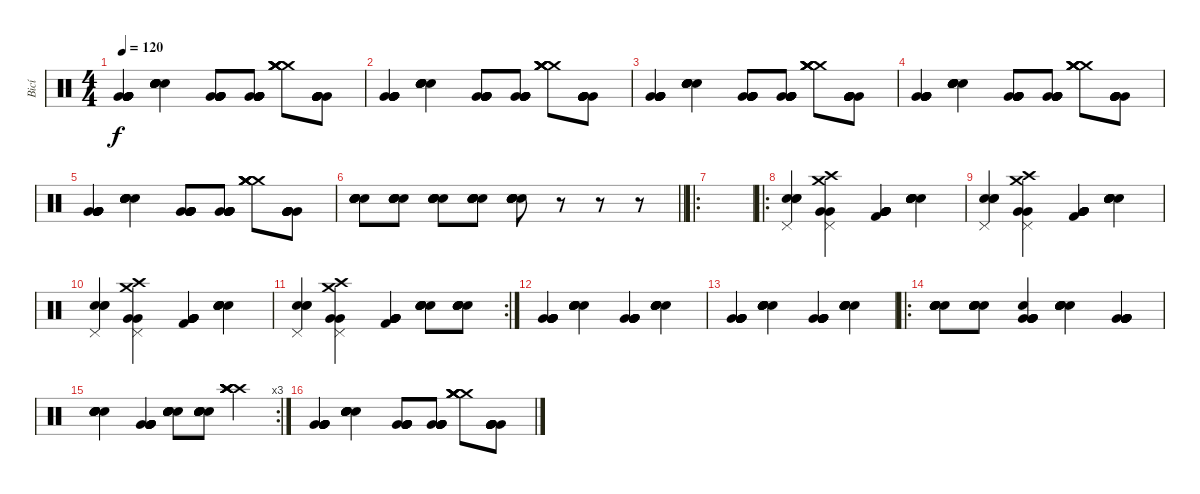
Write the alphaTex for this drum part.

\track ("Bicí" "Bicí") {instrument percussion}
\staff {score}
\articulation defaults
\ts (4 4)
\tempo 120
\clef neutral
\ks c
("Very Low Tom (hit)" "Very Low Tom (hit)" "Very Low Tom (hit)" "Very Low Tom (hit)" "Very Low Tom (hit)" "Very Low Tom (hit)").4{dy f} ("Electric Snare (hit)" "Electric Snare (hit)" "Electric Snare (hit)" "Electric Snare (hit)" "Electric Snare (hit)" "Electric Snare (hit)").4 ("Very Low Tom (hit)" "Very Low Tom (hit)" "Very Low Tom (hit)" "Very Low Tom (hit)" "Very Low Tom (hit)" "Very Low Tom (hit)").8 ("Very Low Tom (hit)" "Very Low Tom (hit)" "Very Low Tom (hit)" "Very Low Tom (hit)" "Very Low Tom (hit)" "Very Low Tom (hit)").8 ("Crash medium (hit)" "Crash medium (hit)" "Crash medium (hit)" "Crash medium (hit)" "Crash medium (hit)" "Crash medium (hit)").8 ("Very Low Tom (hit)" "Very Low Tom (hit)" "Very Low Tom (hit)" "Very Low Tom (hit)" "Very Low Tom (hit)" "Very Low Tom (hit)").8 |
("Very Low Tom (hit)" "Very Low Tom (hit)" "Very Low Tom (hit)" "Very Low Tom (hit)" "Very Low Tom (hit)" "Very Low Tom (hit)").4 ("Electric Snare (hit)" "Electric Snare (hit)" "Electric Snare (hit)" "Electric Snare (hit)" "Electric Snare (hit)" "Electric Snare (hit)").4 ("Very Low Tom (hit)" "Very Low Tom (hit)" "Very Low Tom (hit)" "Very Low Tom (hit)" "Very Low Tom (hit)" "Very Low Tom (hit)").8 ("Very Low Tom (hit)" "Very Low Tom (hit)" "Very Low Tom (hit)" "Very Low Tom (hit)" "Very Low Tom (hit)" "Very Low Tom (hit)").8 ("Crash medium (hit)" "Crash medium (hit)" "Crash medium (hit)" "Crash medium (hit)" "Crash medium (hit)" "Crash medium (hit)").8 ("Very Low Tom (hit)" "Very Low Tom (hit)" "Very Low Tom (hit)" "Very Low Tom (hit)" "Very Low Tom (hit)" "Very Low Tom (hit)").8 |
("Very Low Tom (hit)" "Very Low Tom (hit)" "Very Low Tom (hit)" "Very Low Tom (hit)" "Very Low Tom (hit)" "Very Low Tom (hit)").4 ("Electric Snare (hit)" "Electric Snare (hit)" "Electric Snare (hit)" "Electric Snare (hit)" "Electric Snare (hit)" "Electric Snare (hit)").4 ("Very Low Tom (hit)" "Very Low Tom (hit)" "Very Low Tom (hit)" "Very Low Tom (hit)" "Very Low Tom (hit)" "Very Low Tom (hit)").8 ("Very Low Tom (hit)" "Very Low Tom (hit)" "Very Low Tom (hit)" "Very Low Tom (hit)" "Very Low Tom (hit)" "Very Low Tom (hit)").8 ("Crash medium (hit)" "Crash medium (hit)" "Crash medium (hit)" "Crash medium (hit)" "Crash medium (hit)" "Crash medium (hit)").8 ("Very Low Tom (hit)" "Very Low Tom (hit)" "Very Low Tom (hit)" "Very Low Tom (hit)" "Very Low Tom (hit)" "Very Low Tom (hit)").8 |
("Very Low Tom (hit)" "Very Low Tom (hit)" "Very Low Tom (hit)" "Very Low Tom (hit)" "Very Low Tom (hit)" "Very Low Tom (hit)").4 ("Electric Snare (hit)" "Electric Snare (hit)" "Electric Snare (hit)" "Electric Snare (hit)" "Electric Snare (hit)" "Electric Snare (hit)").4 ("Very Low Tom (hit)" "Very Low Tom (hit)" "Very Low Tom (hit)" "Very Low Tom (hit)" "Very Low Tom (hit)" "Very Low Tom (hit)").8 ("Very Low Tom (hit)" "Very Low Tom (hit)" "Very Low Tom (hit)" "Very Low Tom (hit)" "Very Low Tom (hit)" "Very Low Tom (hit)").8 ("Crash medium (hit)" "Crash medium (hit)" "Crash medium (hit)" "Crash medium (hit)" "Crash medium (hit)" "Crash medium (hit)").8 ("Very Low Tom (hit)" "Very Low Tom (hit)" "Very Low Tom (hit)" "Very Low Tom (hit)" "Very Low Tom (hit)" "Very Low Tom (hit)").8 |
("Very Low Tom (hit)" "Very Low Tom (hit)" "Very Low Tom (hit)" "Very Low Tom (hit)" "Very Low Tom (hit)" "Very Low Tom (hit)").4 ("Electric Snare (hit)" "Electric Snare (hit)" "Electric Snare (hit)" "Electric Snare (hit)" "Electric Snare (hit)" "Electric Snare (hit)").4 ("Very Low Tom (hit)" "Very Low Tom (hit)" "Very Low Tom (hit)" "Very Low Tom (hit)" "Very Low Tom (hit)" "Very Low Tom (hit)").8 ("Very Low Tom (hit)" "Very Low Tom (hit)" "Very Low Tom (hit)" "Very Low Tom (hit)" "Very Low Tom (hit)" "Very Low Tom (hit)").8 ("Crash medium (hit)" "Crash medium (hit)" "Crash medium (hit)" "Crash medium (hit)" "Crash medium (hit)" "Crash medium (hit)").8 ("Very Low Tom (hit)" "Very Low Tom (hit)" "Very Low Tom (hit)" "Very Low Tom (hit)" "Very Low Tom (hit)" "Very Low Tom (hit)").8 |
\barLineRight lightlight
("Electric Snare (hit)" "Electric Snare (hit)" "Electric Snare (hit)" "Electric Snare (hit)" "Electric Snare (hit)" "Electric Snare (hit)").8 ("Electric Snare (hit)" "Electric Snare (hit)" "Electric Snare (hit)" "Electric Snare (hit)" "Electric Snare (hit)" "Electric Snare (hit)").8 ("Electric Snare (hit)" "Electric Snare (hit)" "Electric Snare (hit)" "Electric Snare (hit)" "Electric Snare (hit)" "Electric Snare (hit)").8 ("Electric Snare (hit)" "Electric Snare (hit)" "Electric Snare (hit)" "Electric Snare (hit)" "Electric Snare (hit)" "Electric Snare (hit)").8 ("Electric Snare (hit)" "Electric Snare (hit)" "Electric Snare (hit)" "Electric Snare (hit)" "Electric Snare (hit)" "Electric Snare (hit)").8 r.8 r.8 r.8 |
\ro
|
\ro
("Pedal Hi-Hat (hit)" "Electric Snare (hit)" "Electric Snare (hit)" "Electric Snare (hit)").4 ("Crash high (hit)" "Crash medium (hit)" "Pedal Hi-Hat (hit)" "Very Low Tom (hit)" "Very Low Tom (hit)").4 ("Kick (hit) 2" "Very Low Tom (hit)" "Very Low Tom (hit)" "Very Low Tom (hit)" "Very Low Tom (hit)" "Very Low Tom (hit)").4 ("Electric Snare (hit)" "Electric Snare (hit)" "Electric Snare (hit)" "Electric Snare (hit)" "Electric Snare (hit)" "Electric Snare (hit)").4 |
("Pedal Hi-Hat (hit)" "Electric Snare (hit)" "Electric Snare (hit)" "Electric Snare (hit)").4 ("Crash high (hit)" "Crash medium (hit)" "Pedal Hi-Hat (hit)" "Very Low Tom (hit)" "Very Low Tom (hit)").4 ("Kick (hit) 2" "Very Low Tom (hit)" "Very Low Tom (hit)" "Very Low Tom (hit)" "Very Low Tom (hit)" "Very Low Tom (hit)").4 ("Electric Snare (hit)" "Electric Snare (hit)" "Electric Snare (hit)" "Electric Snare (hit)" "Electric Snare (hit)" "Electric Snare (hit)").4 |
("Pedal Hi-Hat (hit)" "Electric Snare (hit)" "Electric Snare (hit)" "Electric Snare (hit)").4 ("Crash high (hit)" "Crash medium (hit)" "Pedal Hi-Hat (hit)" "Very Low Tom (hit)" "Very Low Tom (hit)").4 ("Kick (hit) 2" "Very Low Tom (hit)" "Very Low Tom (hit)" "Very Low Tom (hit)" "Very Low Tom (hit)" "Very Low Tom (hit)").4 ("Electric Snare (hit)" "Electric Snare (hit)" "Electric Snare (hit)" "Electric Snare (hit)" "Electric Snare (hit)" "Electric Snare (hit)").4 |
\rc 2
("Pedal Hi-Hat (hit)" "Electric Snare (hit)" "Electric Snare (hit)" "Electric Snare (hit)").4 ("Crash high (hit)" "Crash medium (hit)" "Pedal Hi-Hat (hit)" "Very Low Tom (hit)" "Very Low Tom (hit)").4 ("Kick (hit) 2" "Very Low Tom (hit)" "Very Low Tom (hit)" "Very Low Tom (hit)" "Very Low Tom (hit)" "Very Low Tom (hit)").4 ("Electric Snare (hit)" "Electric Snare (hit)" "Electric Snare (hit)" "Electric Snare (hit)" "Electric Snare (hit)" "Electric Snare (hit)").8 ("Electric Snare (hit)" "Electric Snare (hit)" "Electric Snare (hit)" "Electric Snare (hit)" "Electric Snare (hit)" "Electric Snare (hit)").8 |
("Very Low Tom (hit)" "Very Low Tom (hit)" "Very Low Tom (hit)" "Very Low Tom (hit)" "Very Low Tom (hit)" "Very Low Tom (hit)").4 ("Electric Snare (hit)" "Electric Snare (hit)" "Electric Snare (hit)" "Electric Snare (hit)" "Electric Snare (hit)" "Electric Snare (hit)").4 ("Very Low Tom (hit)" "Very Low Tom (hit)" "Very Low Tom (hit)" "Very Low Tom (hit)" "Very Low Tom (hit)" "Very Low Tom (hit)").4 ("Electric Snare (hit)" "Electric Snare (hit)" "Electric Snare (hit)" "Electric Snare (hit)" "Electric Snare (hit)" "Electric Snare (hit)").4 |
("Very Low Tom (hit)" "Very Low Tom (hit)" "Very Low Tom (hit)" "Very Low Tom (hit)" "Very Low Tom (hit)" "Very Low Tom (hit)").4 ("Electric Snare (hit)" "Electric Snare (hit)" "Electric Snare (hit)" "Electric Snare (hit)" "Electric Snare (hit)" "Electric Snare (hit)").4 ("Very Low Tom (hit)" "Very Low Tom (hit)" "Very Low Tom (hit)" "Very Low Tom (hit)" "Very Low Tom (hit)" "Very Low Tom (hit)").4 ("Electric Snare (hit)" "Electric Snare (hit)" "Electric Snare (hit)" "Electric Snare (hit)" "Electric Snare (hit)" "Electric Snare (hit)").4 |
\ro
("Electric Snare (hit)" "Electric Snare (hit)" "Electric Snare (hit)" "Electric Snare (hit)" "Electric Snare (hit)" "Electric Snare (hit)").8 ("Electric Snare (hit)" "Electric Snare (hit)" "Electric Snare (hit)" "Electric Snare (hit)" "Electric Snare (hit)" "Electric Snare (hit)").8 ("Very Low Tom (hit)" "Very Low Tom (hit)" "Very Low Tom (hit)" "Very Low Tom (hit)" "Very Low Tom (hit)" "Electric Snare (hit)").4 ("Electric Snare (hit)" "Electric Snare (hit)" "Electric Snare (hit)" "Electric Snare (hit)" "Electric Snare (hit)" "Electric Snare (hit)").4 ("Very Low Tom (hit)" "Very Low Tom (hit)" "Very Low Tom (hit)" "Very Low Tom (hit)" "Very Low Tom (hit)" "Very Low Tom (hit)").4 |
\rc 3
("Electric Snare (hit)" "Electric Snare (hit)" "Electric Snare (hit)" "Electric Snare (hit)" "Electric Snare (hit)" "Electric Snare (hit)").4 ("Very Low Tom (hit)" "Very Low Tom (hit)" "Very Low Tom (hit)" "Very Low Tom (hit)" "Very Low Tom (hit)" "Very Low Tom (hit)").4 ("Electric Snare (hit)" "Electric Snare (hit)" "Electric Snare (hit)" "Electric Snare (hit)" "Electric Snare (hit)" "Electric Snare (hit)").8 ("Electric Snare (hit)" "Electric Snare (hit)" "Electric Snare (hit)" "Electric Snare (hit)" "Electric Snare (hit)" "Electric Snare (hit)").8 ("Crash high (hit)" "Crash high (hit)" "Crash high (hit)" "Crash high (hit)" "Crash high (hit)" "Crash high (hit)").4 |
("Very Low Tom (hit)" "Very Low Tom (hit)" "Very Low Tom (hit)" "Very Low Tom (hit)" "Very Low Tom (hit)" "Very Low Tom (hit)").4 ("Electric Snare (hit)" "Electric Snare (hit)" "Electric Snare (hit)" "Electric Snare (hit)" "Electric Snare (hit)" "Electric Snare (hit)").4 ("Very Low Tom (hit)" "Very Low Tom (hit)" "Very Low Tom (hit)" "Very Low Tom (hit)" "Very Low Tom (hit)" "Very Low Tom (hit)").8 ("Very Low Tom (hit)" "Very Low Tom (hit)" "Very Low Tom (hit)" "Very Low Tom (hit)" "Very Low Tom (hit)" "Very Low Tom (hit)").8 ("Crash medium (hit)" "Crash medium (hit)" "Crash medium (hit)" "Crash medium (hit)" "Crash medium (hit)" "Crash medium (hit)").8 ("Very Low Tom (hit)" "Very Low Tom (hit)" "Very Low Tom (hit)" "Very Low Tom (hit)" "Very Low Tom (hit)" "Very Low Tom (hit)").8
